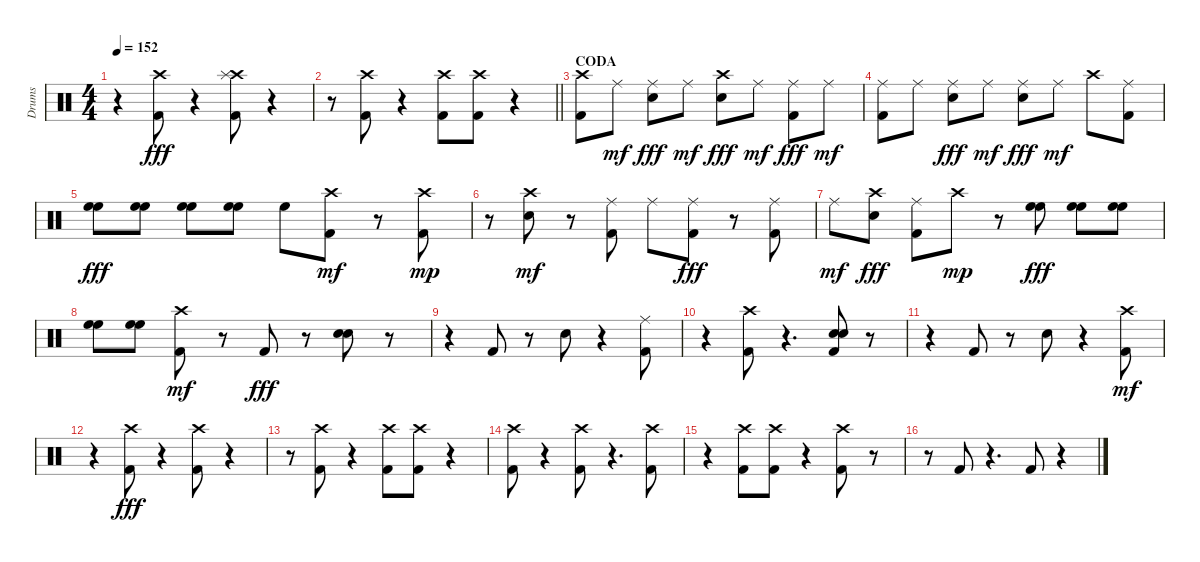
\track ("Drums" "Drums") {instrument percussion}
\staff {score}
\articulation defaults
\ts (4 4)
\tempo 152
\clef neutral
\ks c
r.4{dy fff} ("Crash high (hit)" "Kick (hit) 2").8 r.4 ("Crash high (hit)" "Splash (hit)" "Kick (hit) 2").8 r.4 |
\barLineRight lightlight
r.8 ("Crash high (hit)" "Kick (hit) 2").8 r.4 ("Crash high (hit)" "Kick (hit) 2").8 ("Crash high (hit)" "Kick (hit) 2").8 r.4 |
\section ("" "CODA")
("Crash high (hit)" "Kick (hit) 2").8 "Ride (middle)".8{dy mf} ("Ride (middle)" "Electric Snare (hit)").8{dy fff} "Ride (middle)".8{dy mf} ("Crash high (hit)" "Electric Snare (hit)").8{dy fff} "Ride (middle)".8{dy mf} ("Ride (middle)" "Kick (hit) 2").8{dy fff} "Ride (middle)".8{dy mf} |
("Kick (hit) 2" "Ride (middle)").8 "Ride (middle)".8 ("Ride (middle)" "Electric Snare (hit)").8{dy fff} "Ride (middle)".8{dy mf} ("Ride (middle)" "Electric Snare (hit)").8{dy fff} "Ride (middle)".8{dy mf} "Crash high (hit)".8 ("Kick (hit) 2" "Ride (middle)").8 |
("High Floor Tom (hit)" "High Floor Tom (hit)").8{dy fff} ("High Floor Tom (hit)" "High Floor Tom (hit)").8 ("High Floor Tom (hit)" "High Floor Tom (hit)").8 ("High Floor Tom (hit)" "High Floor Tom (hit)").8 "High Floor Tom (hit)".8 ("Kick (hit) 2" "Crash high (hit)").8{dy mf} r.8 ("Kick (hit) 2" "Crash high (hit)").8{dy mp} |
r.8 ("Electric Snare (hit)" "Crash high (hit)").8{dy mf} r.8 ("Kick (hit) 2" "Ride (middle)").8 "Ride (middle)".8 ("Ride (middle)" "Kick (hit) 2").8{dy fff} r.8 ("Ride (middle)" "Kick (hit) 2").8 |
"Ride (middle)".8{dy mf} ("Crash high (hit)" "Electric Snare (hit)").8{dy fff} ("Ride (middle)" "Kick (hit) 2").8 "Crash high (hit)".8{dy mp} r.8 ("High Floor Tom (hit)" "High Floor Tom (hit)").8{dy fff} ("High Floor Tom (hit)" "High Floor Tom (hit)").8 ("High Floor Tom (hit)" "High Floor Tom (hit)").8 |
("High Floor Tom (hit)" "High Floor Tom (hit)").8 ("High Floor Tom (hit)" "High Floor Tom (hit)").8 ("Kick (hit) 2" "Crash high (hit)").8{dy mf} r.8 "Kick (hit) 2".8{dy fff} r.8 ("Electric Snare (hit)" "Electric Snare (hit)").8 r.8 |
r.4 "Kick (hit) 2".8 r.8 "Electric Snare (hit)".8 r.4 ("Ride (middle)" "Kick (hit) 2").8 |
r.4 ("Crash high (hit)" "Kick (hit) 2").8 r.4{d} ("Electric Snare (hit)" "Kick (hit) 2" "Electric Snare (hit)").8 r.8 |
r.4 "Kick (hit) 2".8 r.8 "Electric Snare (hit)".8 r.4 ("Kick (hit) 2" "Crash high (hit)").8{dy mf} |
r.4 ("Crash high (hit)" "Kick (hit) 2").8{dy fff} r.4 ("Crash high (hit)" "Kick (hit) 2").8 r.4 |
r.8 ("Crash high (hit)" "Kick (hit) 2").8 r.4 ("Crash high (hit)" "Kick (hit) 2").8 ("Crash high (hit)" "Kick (hit) 2").8 r.4 |
("Crash high (hit)" "Kick (hit) 2").8 r.4 ("Crash high (hit)" "Kick (hit) 2").8 r.4{d} ("Crash high (hit)" "Kick (hit) 2").8 |
r.4 ("Crash high (hit)" "Kick (hit) 2").8 ("Crash high (hit)" "Kick (hit) 2").8 r.4 ("Crash high (hit)" "Kick (hit) 2").8 r.8 |
r.8 "Kick (hit) 2".8 r.4{d} "Kick (hit) 2".8 r.4
